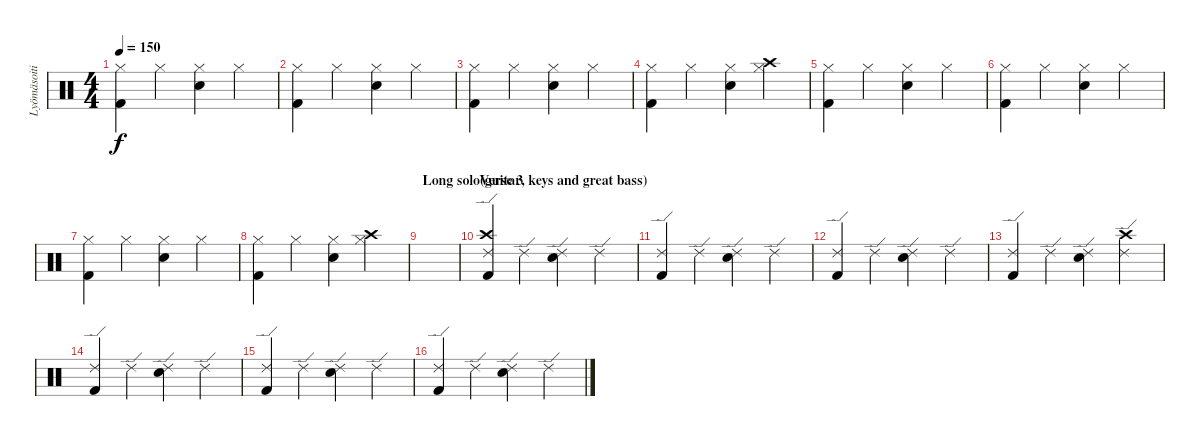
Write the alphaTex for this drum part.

\track ("Lyömäsoitin" "Lyömäsoiti") {instrument percussion}
\staff {score}
\articulation defaults
\ts (4 4)
\tempo 150
\clef neutral
\ks c
("Hi-Hat (closed)" "Kick (hit) 2").4{dy f} "Hi-Hat (closed)".4 ("Hi-Hat (closed)" "Snare (hit) 2").4 "Hi-Hat (closed)".4 |
("Hi-Hat (closed)" "Kick (hit) 2").4 "Hi-Hat (closed)".4 ("Hi-Hat (closed)" "Snare (hit) 2").4 "Hi-Hat (closed)".4 |
("Hi-Hat (closed)" "Kick (hit) 2").4 "Hi-Hat (closed)".4 ("Hi-Hat (closed)" "Snare (hit) 2").4 "Hi-Hat (closed)".4 |
("Hi-Hat (closed)" "Kick (hit) 2").4 "Hi-Hat (closed)".4 ("Hi-Hat (closed)" "Snare (hit) 2").4 ("Hi-Hat (closed)" "Crash high (hit)").4 |
("Hi-Hat (closed)" "Kick (hit) 2").4 "Hi-Hat (closed)".4 ("Hi-Hat (closed)" "Snare (hit) 2").4 "Hi-Hat (closed)".4 |
("Hi-Hat (closed)" "Kick (hit) 2").4 "Hi-Hat (closed)".4 ("Hi-Hat (closed)" "Snare (hit) 2").4 "Hi-Hat (closed)".4 |
("Hi-Hat (closed)" "Kick (hit) 2").4 "Hi-Hat (closed)".4 ("Hi-Hat (closed)" "Snare (hit) 2").4 "Hi-Hat (closed)".4 |
("Hi-Hat (closed)" "Kick (hit) 2").4 "Hi-Hat (closed)".4 ("Hi-Hat (closed)" "Snare (hit) 2").4 ("Hi-Hat (closed)" "Crash high (hit)").4 |
\section ("" "Long solo(guitar, keys and great bass)")
|
\section ("" "Verse 3")
("Ride (edge) 2" "Kick (hit) 2" "Crash high (hit)").4 "Ride (edge) 2".4 ("Ride (edge) 2" "Snare (hit) 2").4 "Ride (edge) 2".4 |
("Ride (edge) 2" "Kick (hit) 2").4 "Ride (edge) 2".4 ("Ride (edge) 2" "Snare (hit) 2").4 "Ride (edge) 2".4 |
("Ride (edge) 2" "Kick (hit) 2").4 "Ride (edge) 2".4 ("Ride (edge) 2" "Snare (hit) 2").4 "Ride (edge) 2".4 |
("Ride (edge) 2" "Kick (hit) 2").4 "Ride (edge) 2".4 ("Ride (edge) 2" "Snare (hit) 2").4 ("Ride (edge) 2" "Crash high (hit)").4 |
("Ride (edge) 2" "Kick (hit) 2").4 "Ride (edge) 2".4 ("Ride (edge) 2" "Snare (hit) 2").4 "Ride (edge) 2".4 |
("Ride (edge) 2" "Kick (hit) 2").4 "Ride (edge) 2".4 ("Ride (edge) 2" "Snare (hit) 2").4 "Ride (edge) 2".4 |
("Ride (edge) 2" "Kick (hit) 2").4 "Ride (edge) 2".4 ("Ride (edge) 2" "Snare (hit) 2").4 "Ride (edge) 2".4
